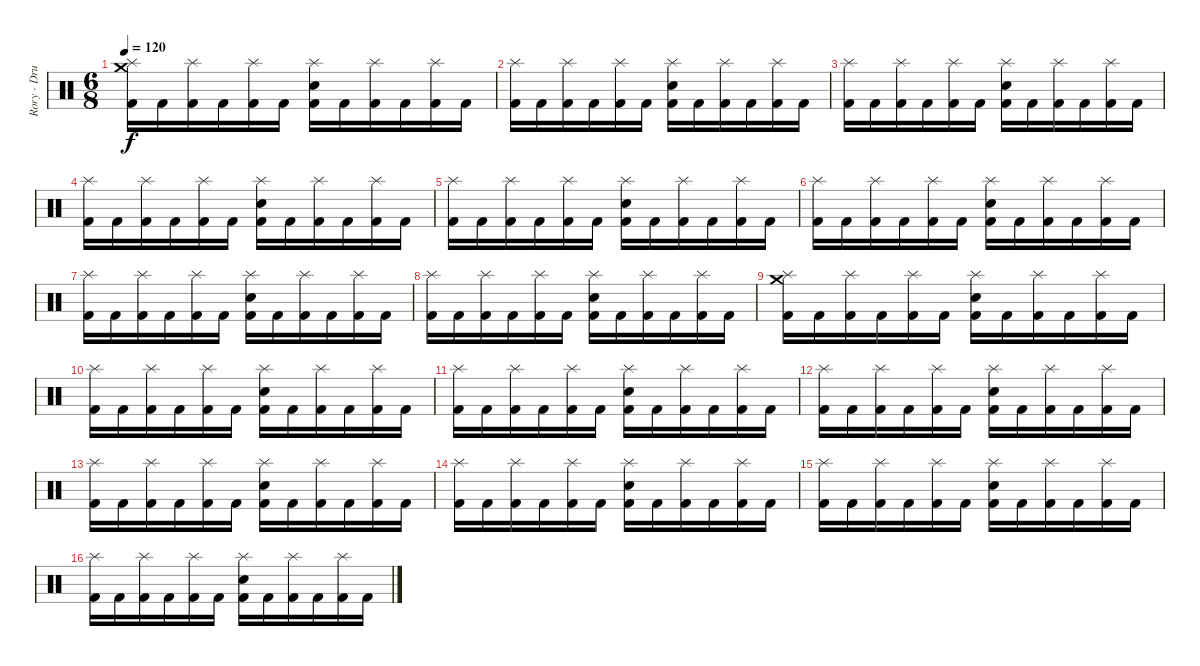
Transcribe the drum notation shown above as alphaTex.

\track ("Rory - Drums" "Rory - Dru") {instrument percussion}
\staff {score}
\articulation defaults
\ts (6 8)
\tempo 120
\clef neutral
\ks c
("Kick (hit) 2" "Crash medium (hit)" "Splash (hit)").16{dy f} "Kick (hit) 2".16 ("Kick (hit) 2" "Splash (hit)").16 "Kick (hit) 2".16 ("Kick (hit) 2" "Splash (hit)").16 "Kick (hit) 2".16 ("Kick (hit) 2" "Electric Snare (hit)" "Splash (hit)").16 "Kick (hit) 2".16 ("Kick (hit) 2" "Splash (hit)").16 "Kick (hit) 2".16 ("Kick (hit) 2" "Splash (hit)").16 "Kick (hit) 2".16 |
("Kick (hit) 2" "Splash (hit)").16 "Kick (hit) 2".16 ("Kick (hit) 2" "Splash (hit)").16 "Kick (hit) 2".16 ("Kick (hit) 2" "Splash (hit)").16 "Kick (hit) 2".16 ("Kick (hit) 2" "Electric Snare (hit)" "Splash (hit)").16 "Kick (hit) 2".16 ("Kick (hit) 2" "Splash (hit)").16 "Kick (hit) 2".16 ("Kick (hit) 2" "Splash (hit)").16 "Kick (hit) 2".16 |
("Kick (hit) 2" "Splash (hit)").16 "Kick (hit) 2".16 ("Kick (hit) 2" "Splash (hit)").16 "Kick (hit) 2".16 ("Kick (hit) 2" "Splash (hit)").16 "Kick (hit) 2".16 ("Kick (hit) 2" "Electric Snare (hit)" "Splash (hit)").16 "Kick (hit) 2".16 ("Kick (hit) 2" "Splash (hit)").16 "Kick (hit) 2".16 ("Kick (hit) 2" "Splash (hit)").16 "Kick (hit) 2".16 |
("Kick (hit) 2" "Splash (hit)").16 "Kick (hit) 2".16 ("Kick (hit) 2" "Splash (hit)").16 "Kick (hit) 2".16 ("Kick (hit) 2" "Splash (hit)").16 "Kick (hit) 2".16 ("Kick (hit) 2" "Electric Snare (hit)" "Splash (hit)").16 "Kick (hit) 2".16 ("Kick (hit) 2" "Splash (hit)").16 "Kick (hit) 2".16 ("Kick (hit) 2" "Splash (hit)").16 "Kick (hit) 2".16 |
("Kick (hit) 2" "Splash (hit)").16 "Kick (hit) 2".16 ("Kick (hit) 2" "Splash (hit)").16 "Kick (hit) 2".16 ("Kick (hit) 2" "Splash (hit)").16 "Kick (hit) 2".16 ("Kick (hit) 2" "Electric Snare (hit)" "Splash (hit)").16 "Kick (hit) 2".16 ("Kick (hit) 2" "Splash (hit)").16 "Kick (hit) 2".16 ("Kick (hit) 2" "Splash (hit)").16 "Kick (hit) 2".16 |
("Kick (hit) 2" "Splash (hit)").16 "Kick (hit) 2".16 ("Kick (hit) 2" "Splash (hit)").16 "Kick (hit) 2".16 ("Kick (hit) 2" "Splash (hit)").16 "Kick (hit) 2".16 ("Kick (hit) 2" "Electric Snare (hit)" "Splash (hit)").16 "Kick (hit) 2".16 ("Kick (hit) 2" "Splash (hit)").16 "Kick (hit) 2".16 ("Kick (hit) 2" "Splash (hit)").16 "Kick (hit) 2".16 |
("Kick (hit) 2" "Splash (hit)").16 "Kick (hit) 2".16 ("Kick (hit) 2" "Splash (hit)").16 "Kick (hit) 2".16 ("Kick (hit) 2" "Splash (hit)").16 "Kick (hit) 2".16 ("Kick (hit) 2" "Electric Snare (hit)" "Splash (hit)").16 "Kick (hit) 2".16 ("Kick (hit) 2" "Splash (hit)").16 "Kick (hit) 2".16 ("Kick (hit) 2" "Splash (hit)").16 "Kick (hit) 2".16 |
("Kick (hit) 2" "Splash (hit)").16 "Kick (hit) 2".16 ("Kick (hit) 2" "Splash (hit)").16 "Kick (hit) 2".16 ("Kick (hit) 2" "Splash (hit)").16 "Kick (hit) 2".16 ("Kick (hit) 2" "Electric Snare (hit)" "Splash (hit)").16 "Kick (hit) 2".16 ("Kick (hit) 2" "Splash (hit)").16 "Kick (hit) 2".16 ("Kick (hit) 2" "Splash (hit)").16 "Kick (hit) 2".16 |
("Kick (hit) 2" "Crash medium (hit)" "Splash (hit)").16 "Kick (hit) 2".16 ("Kick (hit) 2" "Splash (hit)").16 "Kick (hit) 2".16 ("Kick (hit) 2" "Splash (hit)").16 "Kick (hit) 2".16 ("Kick (hit) 2" "Electric Snare (hit)" "Splash (hit)").16 "Kick (hit) 2".16 ("Kick (hit) 2" "Splash (hit)").16 "Kick (hit) 2".16 ("Kick (hit) 2" "Splash (hit)").16 "Kick (hit) 2".16 |
("Kick (hit) 2" "Splash (hit)").16 "Kick (hit) 2".16 ("Kick (hit) 2" "Splash (hit)").16 "Kick (hit) 2".16 ("Kick (hit) 2" "Splash (hit)").16 "Kick (hit) 2".16 ("Kick (hit) 2" "Electric Snare (hit)" "Splash (hit)").16 "Kick (hit) 2".16 ("Kick (hit) 2" "Splash (hit)").16 "Kick (hit) 2".16 ("Kick (hit) 2" "Splash (hit)").16 "Kick (hit) 2".16 |
("Kick (hit) 2" "Splash (hit)").16 "Kick (hit) 2".16 ("Kick (hit) 2" "Splash (hit)").16 "Kick (hit) 2".16 ("Kick (hit) 2" "Splash (hit)").16 "Kick (hit) 2".16 ("Kick (hit) 2" "Electric Snare (hit)" "Splash (hit)").16 "Kick (hit) 2".16 ("Kick (hit) 2" "Splash (hit)").16 "Kick (hit) 2".16 ("Kick (hit) 2" "Splash (hit)").16 "Kick (hit) 2".16 |
("Kick (hit) 2" "Splash (hit)").16 "Kick (hit) 2".16 ("Kick (hit) 2" "Splash (hit)").16 "Kick (hit) 2".16 ("Kick (hit) 2" "Splash (hit)").16 "Kick (hit) 2".16 ("Kick (hit) 2" "Electric Snare (hit)" "Splash (hit)").16 "Kick (hit) 2".16 ("Kick (hit) 2" "Splash (hit)").16 "Kick (hit) 2".16 ("Kick (hit) 2" "Splash (hit)").16 "Kick (hit) 2".16 |
("Kick (hit) 2" "Splash (hit)").16 "Kick (hit) 2".16 ("Kick (hit) 2" "Splash (hit)").16 "Kick (hit) 2".16 ("Kick (hit) 2" "Splash (hit)").16 "Kick (hit) 2".16 ("Kick (hit) 2" "Electric Snare (hit)" "Splash (hit)").16 "Kick (hit) 2".16 ("Kick (hit) 2" "Splash (hit)").16 "Kick (hit) 2".16 ("Kick (hit) 2" "Splash (hit)").16 "Kick (hit) 2".16 |
("Kick (hit) 2" "Splash (hit)").16 "Kick (hit) 2".16 ("Kick (hit) 2" "Splash (hit)").16 "Kick (hit) 2".16 ("Kick (hit) 2" "Splash (hit)").16 "Kick (hit) 2".16 ("Kick (hit) 2" "Electric Snare (hit)" "Splash (hit)").16 "Kick (hit) 2".16 ("Kick (hit) 2" "Splash (hit)").16 "Kick (hit) 2".16 ("Kick (hit) 2" "Splash (hit)").16 "Kick (hit) 2".16 |
("Kick (hit) 2" "Splash (hit)").16 "Kick (hit) 2".16 ("Kick (hit) 2" "Splash (hit)").16 "Kick (hit) 2".16 ("Kick (hit) 2" "Splash (hit)").16 "Kick (hit) 2".16 ("Kick (hit) 2" "Electric Snare (hit)" "Splash (hit)").16 "Kick (hit) 2".16 ("Kick (hit) 2" "Splash (hit)").16 "Kick (hit) 2".16 ("Kick (hit) 2" "Splash (hit)").16 "Kick (hit) 2".16 |
("Kick (hit) 2" "Splash (hit)").16 "Kick (hit) 2".16 ("Kick (hit) 2" "Splash (hit)").16 "Kick (hit) 2".16 ("Kick (hit) 2" "Splash (hit)").16 "Kick (hit) 2".16 ("Kick (hit) 2" "Electric Snare (hit)" "Splash (hit)").16 "Kick (hit) 2".16 ("Kick (hit) 2" "Splash (hit)").16 "Kick (hit) 2".16 ("Kick (hit) 2" "Splash (hit)").16 "Kick (hit) 2".16
